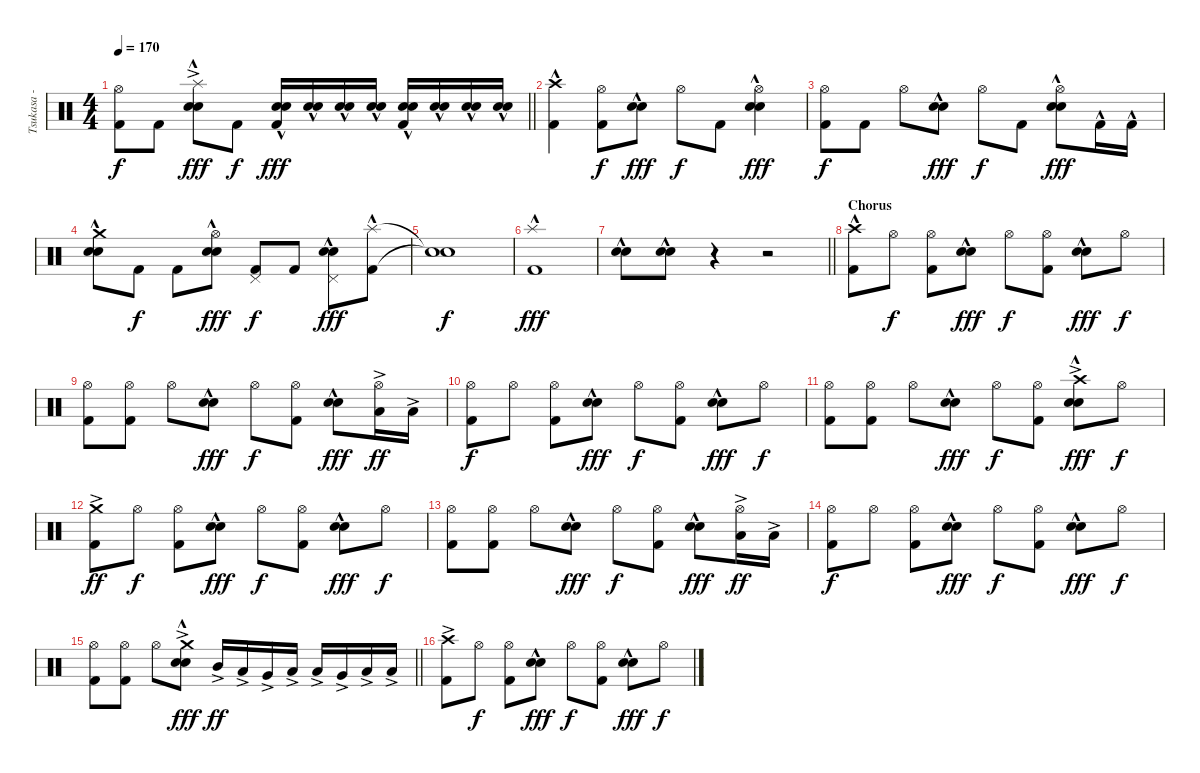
\track ("Tsukasa - Drums" "Tsukasa - ") {instrument percussion}
\staff {score}
\articulation defaults
\ts (4 4)
\tempo 170
\clef neutral
\barLineRight lightlight
\ks c
("Hi-Hat (open)" "Kick (hit) 2").8{dy f} "Kick (hit) 2".8 ("Splash (hit)"{ac} "Electric Snare (hit)"{hac} "Snare (hit) 2").8{dy fff} "Kick (hit) 2".8{dy f} ("Electric Snare (hit)"{hac} "Snare (hit) 2" "Kick (hit) 2").16{dy fff} ("Electric Snare (hit)"{hac} "Snare (hit) 2").16 ("Electric Snare (hit)"{hac} "Snare (hit) 2").16 ("Electric Snare (hit)"{hac} "Snare (hit) 2").16 ("Electric Snare (hit)"{hac} "Snare (hit) 2" "Kick (hit) 2").16 ("Electric Snare (hit)"{hac} "Snare (hit) 2").16 ("Electric Snare (hit)"{hac} "Snare (hit) 2").16 ("Electric Snare (hit)"{hac} "Snare (hit) 2").16 |
("Crash high (hit)"{hac} "Kick (hit) 2").4 ("Hi-Hat (open)" "Kick (hit) 2").8{dy f} ("Electric Snare (hit)"{hac} "Snare (hit) 2").8{dy fff} "Hi-Hat (open)".8{dy f} "Kick (hit) 2".8 ("Hi-Hat (open)" "Electric Snare (hit)"{hac} "Snare (hit) 2").4{dy fff} |
("Hi-Hat (open)" "Kick (hit) 2").8{dy f} "Kick (hit) 2".8 "Hi-Hat (open)".8 ("Electric Snare (hit)"{hac} "Snare (hit) 2").8{dy fff} "Hi-Hat (open)".8{dy f} "Kick (hit) 2".8 ("Hi-Hat (open)" "Electric Snare (hit)"{hac} "Snare (hit) 2").8{dy fff} "Kick (hit) 2"{hac}.16 "Kick (hit) 2"{hac}.16 |
("Crash medium (hit)" "Electric Snare (hit)"{hac} "Snare (hit) 2").8 "Kick (hit) 2".8{dy f} "Kick (hit) 2".8 ("Hi-Hat (open)" "Electric Snare (hit)"{hac} "Snare (hit) 2").8{dy fff} ("Pedal Hi-Hat (hit)" "Kick (hit) 2").8{dy f} "Kick (hit) 2".8 ("Pedal Hi-Hat (hit)" "Electric Snare (hit)"{hac} "Snare (hit) 2").8{dy fff} ("Splash (hit)"{hac} "Kick (hit) 2").8 |
("Snare (hit)"{t} "Snare (hit)"{t}).1{dy f} |
("Splash (hit)"{hac} "Kick (hit) 2").1{dy fff} |
\barLineRight lightlight
("Electric Snare (hit)"{hac} "Snare (hit) 2").8 ("Electric Snare (hit)"{hac} "Snare (hit) 2").8 r.4 r.2 |
\section ("" "Chorus")
("Crash high (hit)"{hac} "Kick (hit) 2").8 "Hi-Hat (open)".8{dy f} ("Hi-Hat (open)" "Kick (hit) 2").8 ("Electric Snare (hit)"{hac} "Snare (hit) 2").8{dy fff} "Hi-Hat (open)".8{dy f} ("Hi-Hat (open)" "Kick (hit) 2").8 ("Electric Snare (hit)"{hac} "Snare (hit) 2").8{dy fff} "Hi-Hat (open)".8{dy f} |
("Hi-Hat (open)" "Kick (hit) 2").8 ("Hi-Hat (open)" "Kick (hit) 2").8 "Hi-Hat (open)".8 ("Electric Snare (hit)"{hac} "Snare (hit) 2").8{dy fff} "Hi-Hat (open)".8{dy f} ("Hi-Hat (open)" "Kick (hit) 2").8 ("Electric Snare (hit)"{hac} "Snare (hit) 2").8{dy fff} ("Hi-Hat (open)" "Low Tom (hit)"{ac}).16{dy ff} "Low Tom (hit)"{ac}.16 |
("Hi-Hat (open)" "Kick (hit) 2").8{dy f} "Hi-Hat (open)".8 ("Hi-Hat (open)" "Kick (hit) 2").8 ("Electric Snare (hit)"{hac} "Snare (hit) 2").8{dy fff} "Hi-Hat (open)".8{dy f} ("Hi-Hat (open)" "Kick (hit) 2").8 ("Electric Snare (hit)"{hac} "Snare (hit) 2").8{dy fff} "Hi-Hat (open)".8{dy f} |
("Hi-Hat (open)" "Kick (hit) 2").8 ("Hi-Hat (open)" "Kick (hit) 2").8 "Hi-Hat (open)".8 ("Electric Snare (hit)"{hac} "Snare (hit) 2").8{dy fff} "Hi-Hat (open)".8{dy f} ("Hi-Hat (open)" "Kick (hit) 2").8 ("Crash high (hit)"{ac} "Electric Snare (hit)"{hac} "Snare (hit) 2").8{dy fff} "Hi-Hat (open)".8{dy f} |
("Crash medium (hit)"{ac} "Kick (hit) 2").8{dy ff} "Hi-Hat (open)".8{dy f} ("Hi-Hat (open)" "Kick (hit) 2").8 ("Electric Snare (hit)"{hac} "Snare (hit) 2").8{dy fff} "Hi-Hat (open)".8{dy f} ("Hi-Hat (open)" "Kick (hit) 2").8 ("Electric Snare (hit)"{hac} "Snare (hit) 2").8{dy fff} "Hi-Hat (open)".8{dy f} |
("Hi-Hat (open)" "Kick (hit) 2").8 ("Hi-Hat (open)" "Kick (hit) 2").8 "Hi-Hat (open)".8 ("Electric Snare (hit)"{hac} "Snare (hit) 2").8{dy fff} "Hi-Hat (open)".8{dy f} ("Hi-Hat (open)" "Kick (hit) 2").8 ("Electric Snare (hit)"{hac} "Snare (hit) 2").8{dy fff} ("Hi-Hat (open)" "Low Tom (hit)"{ac}).16{dy ff} "Low Tom (hit)"{ac}.16 |
("Hi-Hat (open)" "Kick (hit) 2").8{dy f} "Hi-Hat (open)".8 ("Hi-Hat (open)" "Kick (hit) 2").8 ("Electric Snare (hit)"{hac} "Snare (hit) 2").8{dy fff} "Hi-Hat (open)".8{dy f} ("Hi-Hat (open)" "Kick (hit) 2").8 ("Electric Snare (hit)"{hac} "Snare (hit) 2").8{dy fff} "Hi-Hat (open)".8{dy f} |
\barLineRight lightlight
("Hi-Hat (open)" "Kick (hit) 2").8 ("Hi-Hat (open)" "Kick (hit) 2").8 "Hi-Hat (open)".8 ("Crash medium (hit)"{ac} "Electric Snare (hit)"{hac} "Snare (hit) 2").8{dy fff} "Mid Tom (hit)"{ac}.16{dy ff} "Low Tom (hit)"{ac}.16 "Very Low Tom (hit)"{ac}.16 "Low Floor Tom (hit)"{ac}.16 "Low Tom (hit)"{ac}.16 "Very Low Tom (hit)"{ac}.16 "Low Floor Tom (hit)"{ac}.16 "Low Floor Tom (hit)"{ac}.16 |
\section ("" "")
("Crash high (hit)"{ac} "Kick (hit) 2").8 "Hi-Hat (open)".8{dy f} ("Hi-Hat (open)" "Kick (hit) 2").8 ("Electric Snare (hit)"{hac} "Snare (hit) 2").8{dy fff} "Hi-Hat (open)".8{dy f} ("Hi-Hat (open)" "Kick (hit) 2").8 ("Electric Snare (hit)"{hac} "Snare (hit) 2").8{dy fff} "Hi-Hat (open)".8{dy f}
